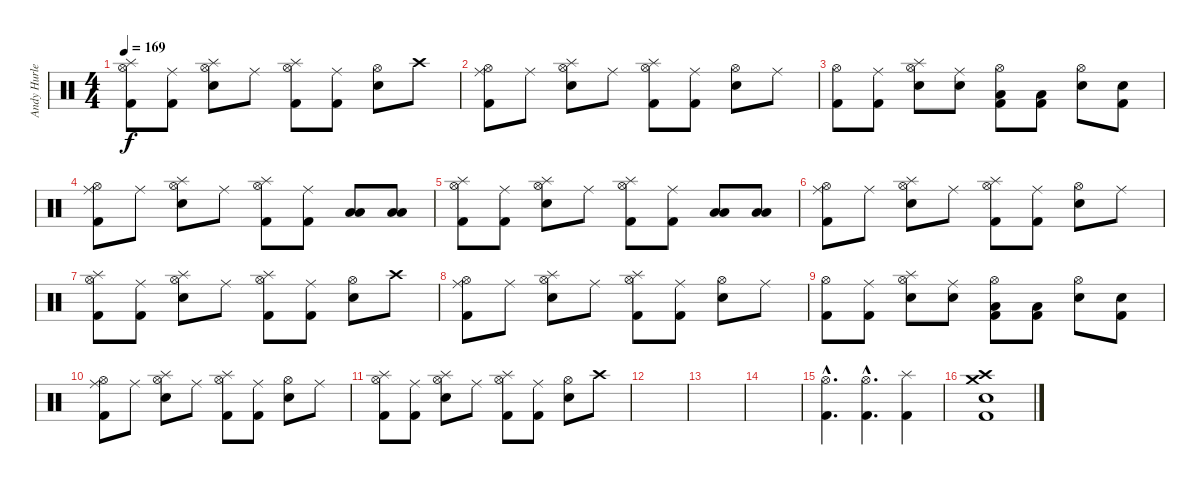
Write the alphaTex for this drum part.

\track ("Andy Hurley" "Andy Hurle") {instrument percussion}
\staff {score}
\articulation defaults
\ts (4 4)
\tempo 169
\clef neutral
\ks c
("Hi-Hat (open)" "Splash (hit)" "Kick (hit) 2").8{dy f} ("Ride (middle)" "Kick (hit) 2").8 ("Hi-Hat (open)" "Splash (hit)" "Electric Snare (hit)").8 "Ride (middle)".8 ("Hi-Hat (open)" "Splash (hit)" "Kick (hit) 2").8 ("Ride (middle)" "Kick (hit) 2").8 ("Hi-Hat (open)" "Electric Snare (hit)").8 "Crash high (hit)".8 |
("Hi-Hat (open)" "Ride (middle)" "Kick (hit) 2").8 "Ride (middle)".8 ("Hi-Hat (open)" "Splash (hit)" "Electric Snare (hit)").8 "Ride (middle)".8 ("Hi-Hat (open)" "Splash (hit)" "Kick (hit) 2").8 ("Ride (middle)" "Kick (hit) 2").8 ("Hi-Hat (open)" "Electric Snare (hit)").8 "Ride (middle)".8 |
("Hi-Hat (open)" "Kick (hit) 2").8 ("Ride (middle)" "Kick (hit) 2").8 ("Hi-Hat (open)" "Splash (hit)" "Electric Snare (hit)").8 ("Ride (middle)" "Electric Snare (hit)").8 ("Hi-Hat (open)" "Kick (hit) 2" "Low Floor Tom (hit)").8 ("Kick (hit) 2" "Low Floor Tom (hit)").8 ("Hi-Hat (open)" "Snare (hit) 2").8 ("Electric Snare (hit)" "Kick (hit) 2").8 |
("Hi-Hat (open)" "Ride (middle)" "Kick (hit) 2").8 "Ride (middle)".8 ("Hi-Hat (open)" "Splash (hit)" "Electric Snare (hit)").8 "Ride (middle)".8 ("Hi-Hat (open)" "Splash (hit)" "Kick (hit) 2").8 ("Ride (middle)" "Kick (hit) 2").8 ("Low Floor Tom (hit)" "Low Tom (hit)").8 ("Low Floor Tom (hit)" "Low Tom (hit)").8 |
("Hi-Hat (open)" "Splash (hit)" "Kick (hit) 2").8 ("Ride (middle)" "Kick (hit) 2").8 ("Hi-Hat (open)" "Splash (hit)" "Electric Snare (hit)").8 "Ride (middle)".8 ("Hi-Hat (open)" "Splash (hit)" "Kick (hit) 2").8 ("Ride (middle)" "Kick (hit) 2").8 ("Low Floor Tom (hit)" "Low Tom (hit)").8 ("Low Floor Tom (hit)" "Low Tom (hit)").8 |
("Hi-Hat (open)" "Ride (middle)" "Kick (hit) 2").8 "Ride (middle)".8 ("Hi-Hat (open)" "Splash (hit)" "Electric Snare (hit)").8 "Ride (middle)".8 ("Hi-Hat (open)" "Splash (hit)" "Kick (hit) 2").8 ("Ride (middle)" "Kick (hit) 2").8 ("Hi-Hat (open)" "Electric Snare (hit)").8 "Ride (middle)".8 |
("Hi-Hat (open)" "Splash (hit)" "Kick (hit) 2").8 ("Ride (middle)" "Kick (hit) 2").8 ("Hi-Hat (open)" "Splash (hit)" "Electric Snare (hit)").8 "Ride (middle)".8 ("Hi-Hat (open)" "Splash (hit)" "Kick (hit) 2").8 ("Ride (middle)" "Kick (hit) 2").8 ("Hi-Hat (open)" "Electric Snare (hit)").8 "Crash high (hit)".8 |
("Hi-Hat (open)" "Ride (middle)" "Kick (hit) 2").8 "Ride (middle)".8 ("Hi-Hat (open)" "Splash (hit)" "Electric Snare (hit)").8 "Ride (middle)".8 ("Hi-Hat (open)" "Splash (hit)" "Kick (hit) 2").8 ("Ride (middle)" "Kick (hit) 2").8 ("Hi-Hat (open)" "Electric Snare (hit)").8 "Ride (middle)".8 |
("Hi-Hat (open)" "Kick (hit) 2").8 ("Ride (middle)" "Kick (hit) 2").8 ("Hi-Hat (open)" "Splash (hit)" "Electric Snare (hit)").8 ("Ride (middle)" "Electric Snare (hit)").8 ("Hi-Hat (open)" "Kick (hit) 2" "Low Floor Tom (hit)").8 ("Kick (hit) 2" "Low Floor Tom (hit)").8 ("Hi-Hat (open)" "Snare (hit) 2").8 ("Electric Snare (hit)" "Kick (hit) 2").8 |
("Hi-Hat (open)" "Ride (middle)" "Kick (hit) 2").8 "Ride (middle)".8 ("Hi-Hat (open)" "Splash (hit)" "Electric Snare (hit)").8 "Ride (middle)".8 ("Hi-Hat (open)" "Splash (hit)" "Kick (hit) 2").8 ("Ride (middle)" "Kick (hit) 2").8 ("Hi-Hat (open)" "Electric Snare (hit)").8 "Ride (middle)".8 |
("Hi-Hat (open)" "Splash (hit)" "Kick (hit) 2").8 ("Ride (middle)" "Kick (hit) 2").8 ("Hi-Hat (open)" "Splash (hit)" "Electric Snare (hit)").8 "Ride (middle)".8 ("Hi-Hat (open)" "Splash (hit)" "Kick (hit) 2").8 ("Ride (middle)" "Kick (hit) 2").8 ("Hi-Hat (open)" "Electric Snare (hit)").8 "Crash high (hit)".8 |
|
|
|
("Hi-Hat (open)"{hac} "Kick (hit) 2"{hac}).4{d} ("Hi-Hat (open)"{hac} "Kick (hit) 2"{hac}).4{d} ("Splash (hit)" "Kick (hit) 2").4 |
("Crash medium (hit)" "Crash high (hit)" "Kick (hit) 2" "Snare (hit) 2").1
